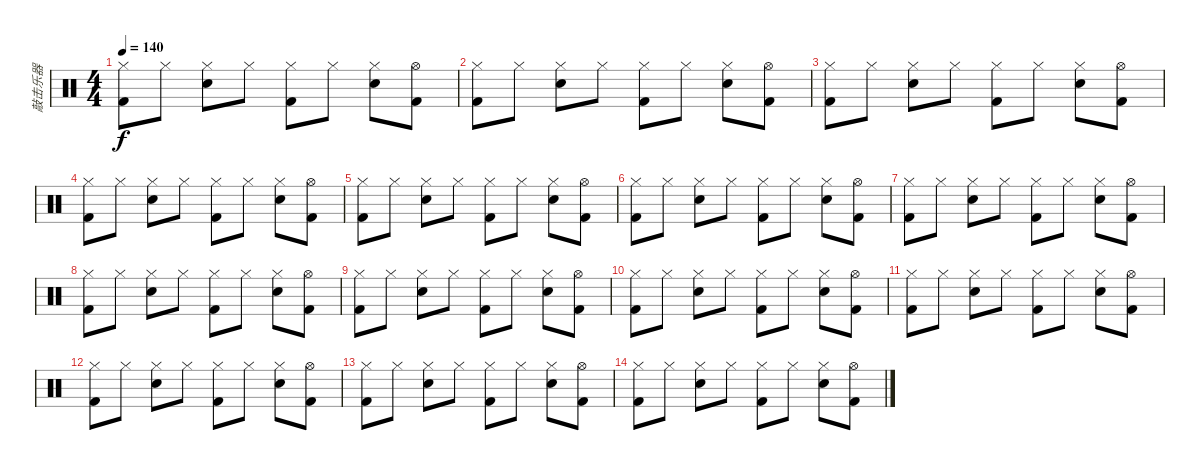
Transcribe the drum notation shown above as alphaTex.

\track ("敲击乐器" "敲击乐器") {instrument percussion}
\staff {score}
\articulation defaults
\ts (4 4)
\tempo 140
\clef neutral
\ks c
("Hi-Hat (closed)" "Kick (hit) 2").8{dy f} "Hi-Hat (closed)".8 ("Hi-Hat (closed)" "Electric Snare (hit)").8 "Hi-Hat (closed)".8 ("Hi-Hat (closed)" "Kick (hit) 2").8 "Hi-Hat (closed)".8 ("Hi-Hat (closed)" "Electric Snare (hit)").8 ("Hi-Hat (open)" "Kick (hit) 2").8 |
("Hi-Hat (closed)" "Kick (hit) 2").8 "Hi-Hat (closed)".8 ("Hi-Hat (closed)" "Electric Snare (hit)").8 "Hi-Hat (closed)".8 ("Hi-Hat (closed)" "Kick (hit) 2").8 "Hi-Hat (closed)".8 ("Hi-Hat (closed)" "Electric Snare (hit)").8 ("Hi-Hat (open)" "Kick (hit) 2").8 |
("Hi-Hat (closed)" "Kick (hit) 2").8 "Hi-Hat (closed)".8 ("Hi-Hat (closed)" "Electric Snare (hit)").8 "Hi-Hat (closed)".8 ("Hi-Hat (closed)" "Kick (hit) 2").8 "Hi-Hat (closed)".8 ("Hi-Hat (closed)" "Electric Snare (hit)").8 ("Hi-Hat (open)" "Kick (hit) 2").8 |
("Hi-Hat (closed)" "Kick (hit) 2").8 "Hi-Hat (closed)".8 ("Hi-Hat (closed)" "Electric Snare (hit)").8 "Hi-Hat (closed)".8 ("Hi-Hat (closed)" "Kick (hit) 2").8 "Hi-Hat (closed)".8 ("Hi-Hat (closed)" "Electric Snare (hit)").8 ("Hi-Hat (open)" "Kick (hit) 2").8 |
("Hi-Hat (closed)" "Kick (hit) 2").8 "Hi-Hat (closed)".8 ("Hi-Hat (closed)" "Electric Snare (hit)").8 "Hi-Hat (closed)".8 ("Hi-Hat (closed)" "Kick (hit) 2").8 "Hi-Hat (closed)".8 ("Hi-Hat (closed)" "Electric Snare (hit)").8 ("Hi-Hat (open)" "Kick (hit) 2").8 |
("Hi-Hat (closed)" "Kick (hit) 2").8 "Hi-Hat (closed)".8 ("Hi-Hat (closed)" "Electric Snare (hit)").8 "Hi-Hat (closed)".8 ("Hi-Hat (closed)" "Kick (hit) 2").8 "Hi-Hat (closed)".8 ("Hi-Hat (closed)" "Electric Snare (hit)").8 ("Hi-Hat (open)" "Kick (hit) 2").8 |
("Hi-Hat (closed)" "Kick (hit) 2").8 "Hi-Hat (closed)".8 ("Hi-Hat (closed)" "Electric Snare (hit)").8 "Hi-Hat (closed)".8 ("Hi-Hat (closed)" "Kick (hit) 2").8 "Hi-Hat (closed)".8 ("Hi-Hat (closed)" "Electric Snare (hit)").8 ("Hi-Hat (open)" "Kick (hit) 2").8 |
("Hi-Hat (closed)" "Kick (hit) 2").8 "Hi-Hat (closed)".8 ("Hi-Hat (closed)" "Electric Snare (hit)").8 "Hi-Hat (closed)".8 ("Hi-Hat (closed)" "Kick (hit) 2").8 "Hi-Hat (closed)".8 ("Hi-Hat (closed)" "Electric Snare (hit)").8 ("Hi-Hat (open)" "Kick (hit) 2").8 |
("Hi-Hat (closed)" "Kick (hit) 2").8 "Hi-Hat (closed)".8 ("Hi-Hat (closed)" "Electric Snare (hit)").8 "Hi-Hat (closed)".8 ("Hi-Hat (closed)" "Kick (hit) 2").8 "Hi-Hat (closed)".8 ("Hi-Hat (closed)" "Electric Snare (hit)").8 ("Hi-Hat (open)" "Kick (hit) 2").8 |
("Hi-Hat (closed)" "Kick (hit) 2").8 "Hi-Hat (closed)".8 ("Hi-Hat (closed)" "Electric Snare (hit)").8 "Hi-Hat (closed)".8 ("Hi-Hat (closed)" "Kick (hit) 2").8 "Hi-Hat (closed)".8 ("Hi-Hat (closed)" "Electric Snare (hit)").8 ("Hi-Hat (open)" "Kick (hit) 2").8 |
("Hi-Hat (closed)" "Kick (hit) 2").8 "Hi-Hat (closed)".8 ("Hi-Hat (closed)" "Electric Snare (hit)").8 "Hi-Hat (closed)".8 ("Hi-Hat (closed)" "Kick (hit) 2").8 "Hi-Hat (closed)".8 ("Hi-Hat (closed)" "Electric Snare (hit)").8 ("Hi-Hat (open)" "Kick (hit) 2").8 |
("Hi-Hat (closed)" "Kick (hit) 2").8 "Hi-Hat (closed)".8 ("Hi-Hat (closed)" "Electric Snare (hit)").8 "Hi-Hat (closed)".8 ("Hi-Hat (closed)" "Kick (hit) 2").8 "Hi-Hat (closed)".8 ("Hi-Hat (closed)" "Electric Snare (hit)").8 ("Hi-Hat (open)" "Kick (hit) 2").8 |
("Hi-Hat (closed)" "Kick (hit) 2").8 "Hi-Hat (closed)".8 ("Hi-Hat (closed)" "Electric Snare (hit)").8 "Hi-Hat (closed)".8 ("Hi-Hat (closed)" "Kick (hit) 2").8 "Hi-Hat (closed)".8 ("Hi-Hat (closed)" "Electric Snare (hit)").8 ("Hi-Hat (open)" "Kick (hit) 2").8 |
("Hi-Hat (closed)" "Kick (hit) 2").8 "Hi-Hat (closed)".8 ("Hi-Hat (closed)" "Electric Snare (hit)").8 "Hi-Hat (closed)".8 ("Hi-Hat (closed)" "Kick (hit) 2").8 "Hi-Hat (closed)".8 ("Hi-Hat (closed)" "Electric Snare (hit)").8 ("Hi-Hat (open)" "Kick (hit) 2").8
